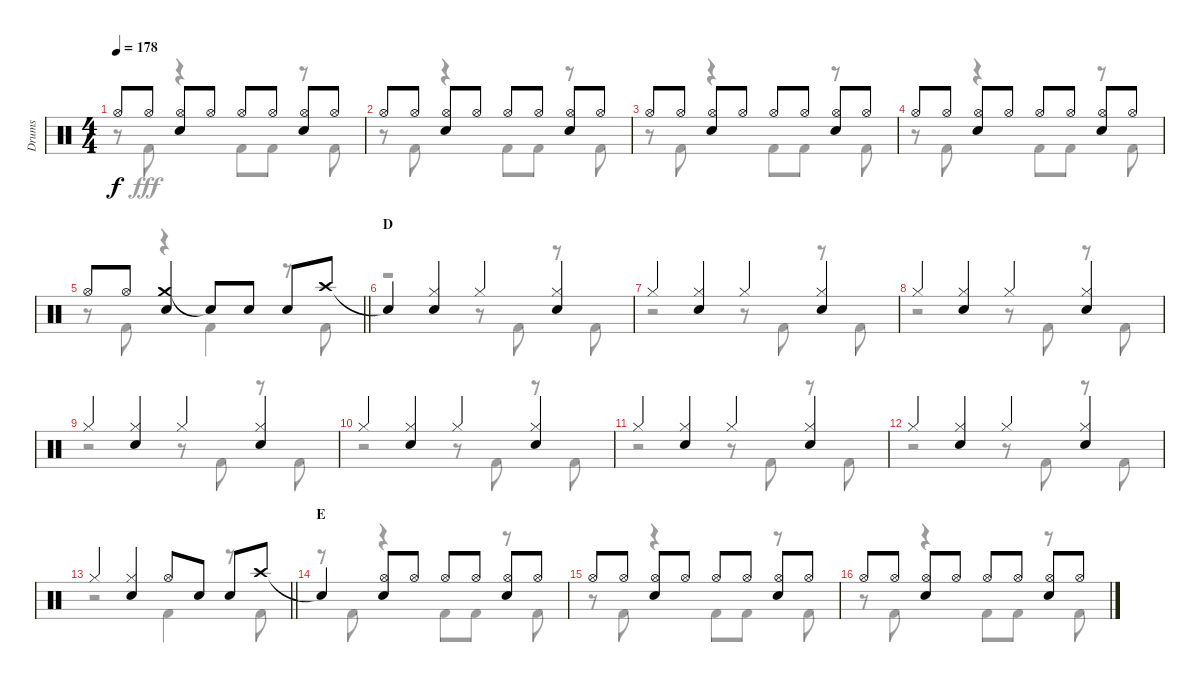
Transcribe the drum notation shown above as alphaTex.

\track ("Drums" "Drums") {instrument percussion}
\staff {score}
\articulation defaults
\voice
\ts (4 4)
\tempo 178
\clef neutral
\ks c "Hi-Hat (open)".8{dy f} "Hi-Hat (open)".8
("Hi-Hat (open)" "Snare (hit) 2").8 "Hi-Hat (open)".8 "Hi-Hat (open)".8 "Hi-Hat (open)".8 ("Hi-Hat (open)" "Snare (hit) 2").8 "Hi-Hat (open)".8 |
"Hi-Hat (open)".8 "Hi-Hat (open)".8 ("Hi-Hat (open)" "Snare (hit) 2").8 "Hi-Hat (open)".8 "Hi-Hat (open)".8 "Hi-Hat (open)".8 ("Hi-Hat (open)" "Snare (hit) 2").8 "Hi-Hat (open)".8 |
"Hi-Hat (open)".8 "Hi-Hat (open)".8 ("Hi-Hat (open)" "Snare (hit) 2").8 "Hi-Hat (open)".8 "Hi-Hat (open)".8 "Hi-Hat (open)".8 ("Hi-Hat (open)" "Snare (hit) 2").8 "Hi-Hat (open)".8 |
"Hi-Hat (open)".8 "Hi-Hat (open)".8 ("Hi-Hat (open)" "Snare (hit) 2").8 "Hi-Hat (open)".8 "Hi-Hat (open)".8 "Hi-Hat (open)".8 ("Hi-Hat (open)" "Snare (hit) 2").8 "Hi-Hat (open)".8 |
\barLineRight lightlight "Hi-Hat (open)".8 "Hi-Hat (open)".8
("Crash medium (hit)" "Snare (hit) 2").4 "Snare (hit)"{t}.8 "Snare (hit) 2".8 "Snare (hit) 2".8 "Crash high (hit)".8 |
\section ("" "D")
"Snare (hit)"{t}.4 ("Hi-Hat (closed)" "Snare (hit) 2").4 "Hi-Hat (closed)".4 ("Hi-Hat (closed)" "Snare (hit) 2").4 |
"Hi-Hat (closed)".4 ("Hi-Hat (closed)" "Snare (hit) 2").4 "Hi-Hat (closed)".4 ("Hi-Hat (closed)" "Snare (hit) 2").4 |
"Hi-Hat (closed)".4 ("Hi-Hat (closed)" "Snare (hit) 2").4 "Hi-Hat (closed)".4 ("Hi-Hat (closed)" "Snare (hit) 2").4 |
"Hi-Hat (closed)".4 ("Hi-Hat (closed)" "Snare (hit) 2").4 "Hi-Hat (closed)".4 ("Hi-Hat (closed)" "Snare (hit) 2").4 |
"Hi-Hat (closed)".4 ("Hi-Hat (closed)" "Snare (hit) 2").4 "Hi-Hat (closed)".4 ("Hi-Hat (closed)" "Snare (hit) 2").4 |
"Hi-Hat (closed)".4 ("Hi-Hat (closed)" "Snare (hit) 2").4 "Hi-Hat (closed)".4 ("Hi-Hat (closed)" "Snare (hit) 2").4 |
"Hi-Hat (closed)".4 ("Hi-Hat (closed)" "Snare (hit) 2").4 "Hi-Hat (closed)".4 ("Hi-Hat (closed)" "Snare (hit) 2").4 |
\barLineRight lightlight "Hi-Hat (closed)".4
("Hi-Hat (closed)" "Snare (hit) 2").4 "Hi-Hat (open)".8 "Snare (hit) 2".8 "Snare (hit) 2".8 "Crash high (hit)".8 |
\section ("" "E")
"Snare (hit)"{t}.4 ("Hi-Hat (open)" "Snare (hit) 2").8 "Hi-Hat (open)".8 "Hi-Hat (open)".8 "Hi-Hat (open)".8 ("Hi-Hat (open)" "Snare (hit) 2").8 "Hi-Hat (open)".8 |
"Hi-Hat (open)".8 "Hi-Hat (open)".8 ("Hi-Hat (open)" "Snare (hit) 2").8 "Hi-Hat (open)".8 "Hi-Hat (open)".8 "Hi-Hat (open)".8 ("Hi-Hat (open)" "Snare (hit) 2").8 "Hi-Hat (open)".8 |
"Hi-Hat (open)".8 "Hi-Hat (open)".8 ("Hi-Hat (open)" "Snare (hit) 2").8 "Hi-Hat (open)".8 "Hi-Hat (open)".8 "Hi-Hat (open)".8 ("Hi-Hat (open)" "Snare (hit) 2").8 "Hi-Hat (open)".8
\voice
\clef neutral
\ottava regular
\simile none
\ks c
r.8{dy fff} "Kick (hit) 2".8 r.4 "Kick (hit) 2".8 "Kick (hit) 2".8 r.8 "Kick (hit) 2".8 |
r.8 "Kick (hit) 2".8 r.4 "Kick (hit) 2".8 "Kick (hit) 2".8 r.8 "Kick (hit) 2".8 |
r.8 "Kick (hit) 2".8 r.4 "Kick (hit) 2".8 "Kick (hit) 2".8 r.8 "Kick (hit) 2".8 |
r.8 "Kick (hit) 2".8 r.4 "Kick (hit) 2".8 "Kick (hit) 2".8 r.8 "Kick (hit) 2".8 |
\barLineRight lightlight
r.8 "Kick (hit) 2".8 r.4 "Kick (hit) 2".4 r.8 "Kick (hit) 2".8 |
r.2 r.8 "Kick (hit) 2".8 r.8 "Kick (hit) 2".8 |
r.2 r.8 "Kick (hit) 2".8 r.8 "Kick (hit) 2".8 |
r.2 r.8 "Kick (hit) 2".8 r.8 "Kick (hit) 2".8 |
r.2 r.8 "Kick (hit) 2".8 r.8 "Kick (hit) 2".8 |
r.2 r.8 "Kick (hit) 2".8 r.8 "Kick (hit) 2".8 |
r.2 r.8 "Kick (hit) 2".8 r.8 "Kick (hit) 2".8 |
r.2 r.8 "Kick (hit) 2".8 r.8 "Kick (hit) 2".8 |
\barLineRight lightlight
r.2 "Kick (hit) 2".4 r.8 "Kick (hit) 2".8 |
r.8 "Kick (hit) 2".8 r.4 "Kick (hit) 2".8 "Kick (hit) 2".8 r.8 "Kick (hit) 2".8 |
r.8 "Kick (hit) 2".8 r.4 "Kick (hit) 2".8 "Kick (hit) 2".8 r.8 "Kick (hit) 2".8 |
r.8 "Kick (hit) 2".8 r.4 "Kick (hit) 2".8 "Kick (hit) 2".8 r.8 "Kick (hit) 2".8
